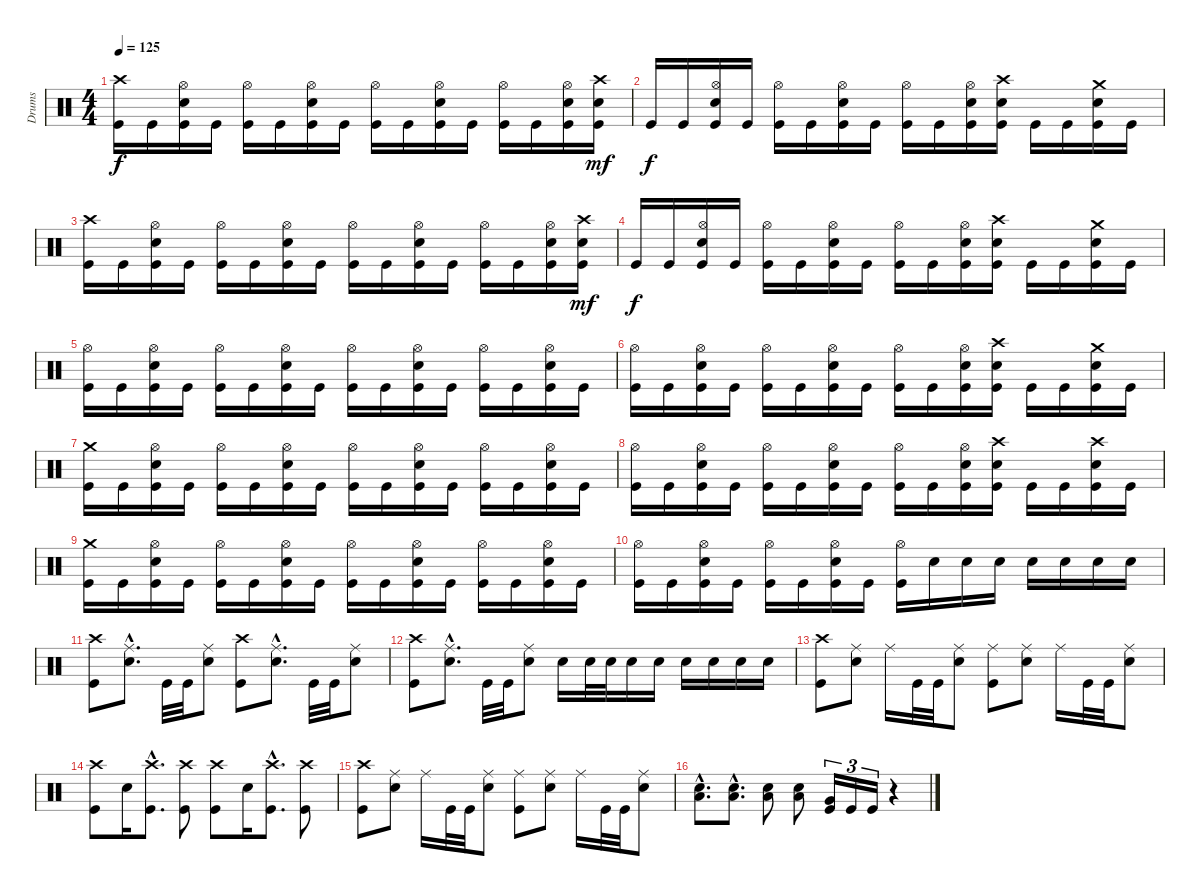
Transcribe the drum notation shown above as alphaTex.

\track ("Drums" "Drums") {instrument percussion}
\staff {score}
\articulation defaults
\ts (4 4)
\tempo 125
\clef neutral
\ks c
("Crash high (hit)" "Kick (hit)").16{dy f} "Kick (hit)".16 ("Hi-Hat (open)" "Snare (hit) 2" "Kick (hit)").16 "Kick (hit)".16 ("Hi-Hat (open)" "Kick (hit)").16 "Kick (hit)".16 ("Hi-Hat (open)" "Snare (hit) 2" "Kick (hit)").16 "Kick (hit)".16 ("Hi-Hat (open)" "Kick (hit)").16 "Kick (hit)".16 ("Hi-Hat (open)" "Snare (hit) 2" "Kick (hit)").16 "Kick (hit)".16 ("Hi-Hat (open)" "Kick (hit)").16 "Kick (hit)".16 ("Hi-Hat (open)" "Snare (hit) 2" "Kick (hit)").16 ("Crash high (hit)" "Snare (hit) 2" "Kick (hit)").16{dy mf} |
"Kick (hit)".16{dy f} "Kick (hit)".16 ("Hi-Hat (open)" "Snare (hit) 2" "Kick (hit)").16 "Kick (hit)".16 ("Hi-Hat (open)" "Kick (hit)").16 "Kick (hit)".16 ("Hi-Hat (open)" "Snare (hit) 2" "Kick (hit)").16 "Kick (hit)".16 ("Hi-Hat (open)" "Kick (hit)").16 "Kick (hit)".16 ("Hi-Hat (open)" "Snare (hit) 2" "Kick (hit)").16 ("Crash high (hit)" "Snare (hit) 2" "Kick (hit)").16 "Kick (hit)".16 "Kick (hit)".16 ("Crash medium (hit)" "Snare (hit) 2" "Kick (hit)").16 "Kick (hit)".16 |
("Crash high (hit)" "Kick (hit)").16 "Kick (hit)".16 ("Hi-Hat (open)" "Snare (hit) 2" "Kick (hit)").16 "Kick (hit)".16 ("Hi-Hat (open)" "Kick (hit)").16 "Kick (hit)".16 ("Hi-Hat (open)" "Snare (hit) 2" "Kick (hit)").16 "Kick (hit)".16 ("Hi-Hat (open)" "Kick (hit)").16 "Kick (hit)".16 ("Hi-Hat (open)" "Snare (hit) 2" "Kick (hit)").16 "Kick (hit)".16 ("Hi-Hat (open)" "Kick (hit)").16 "Kick (hit)".16 ("Hi-Hat (open)" "Snare (hit) 2" "Kick (hit)").16 ("Crash high (hit)" "Snare (hit) 2" "Kick (hit)").16{dy mf} |
"Kick (hit)".16{dy f} "Kick (hit)".16 ("Hi-Hat (open)" "Snare (hit) 2" "Kick (hit)").16 "Kick (hit)".16 ("Hi-Hat (open)" "Kick (hit)").16 "Kick (hit)".16 ("Hi-Hat (open)" "Snare (hit) 2" "Kick (hit)").16 "Kick (hit)".16 ("Hi-Hat (open)" "Kick (hit)").16 "Kick (hit)".16 ("Hi-Hat (open)" "Snare (hit) 2" "Kick (hit)").16 ("Crash high (hit)" "Snare (hit) 2" "Kick (hit)").16 "Kick (hit)".16 "Kick (hit)".16 ("Crash medium (hit)" "Snare (hit) 2" "Kick (hit)").16 "Kick (hit)".16 |
("Hi-Hat (open)" "Kick (hit)").16 "Kick (hit)".16 ("Hi-Hat (open)" "Snare (hit) 2" "Kick (hit)").16 "Kick (hit)".16 ("Hi-Hat (open)" "Kick (hit)").16 "Kick (hit)".16 ("Hi-Hat (open)" "Snare (hit) 2" "Kick (hit)").16 "Kick (hit)".16 ("Hi-Hat (open)" "Kick (hit)").16 "Kick (hit)".16 ("Hi-Hat (open)" "Snare (hit) 2" "Kick (hit)").16 "Kick (hit)".16 ("Hi-Hat (open)" "Kick (hit)").16 "Kick (hit)".16 ("Hi-Hat (open)" "Snare (hit) 2" "Kick (hit)").16 "Kick (hit)".16 |
("Hi-Hat (open)" "Kick (hit)").16 "Kick (hit)".16 ("Hi-Hat (open)" "Snare (hit) 2" "Kick (hit)").16 "Kick (hit)".16 ("Hi-Hat (open)" "Kick (hit)").16 "Kick (hit)".16 ("Hi-Hat (open)" "Snare (hit) 2" "Kick (hit)").16 "Kick (hit)".16 ("Hi-Hat (open)" "Kick (hit)").16 "Kick (hit)".16 ("Hi-Hat (open)" "Snare (hit) 2" "Kick (hit)").16 ("Crash high (hit)" "Snare (hit) 2" "Kick (hit)").16 "Kick (hit)".16 "Kick (hit)".16 ("Crash medium (hit)" "Snare (hit) 2" "Kick (hit)").16 "Kick (hit)".16 |
("Crash medium (hit)" "Kick (hit)").16 "Kick (hit)".16 ("Hi-Hat (open)" "Snare (hit) 2" "Kick (hit)").16 "Kick (hit)".16 ("Hi-Hat (open)" "Kick (hit)").16 "Kick (hit)".16 ("Hi-Hat (open)" "Snare (hit) 2" "Kick (hit)").16 "Kick (hit)".16 ("Hi-Hat (open)" "Kick (hit)").16 "Kick (hit)".16 ("Hi-Hat (open)" "Snare (hit) 2" "Kick (hit)").16 "Kick (hit)".16 ("Hi-Hat (open)" "Kick (hit)").16 "Kick (hit)".16 ("Hi-Hat (open)" "Snare (hit) 2" "Kick (hit)").16 "Kick (hit)".16 |
("Hi-Hat (open)" "Kick (hit)").16 "Kick (hit)".16 ("Hi-Hat (open)" "Snare (hit) 2" "Kick (hit)").16 "Kick (hit)".16 ("Hi-Hat (open)" "Kick (hit)").16 "Kick (hit)".16 ("Hi-Hat (open)" "Snare (hit) 2" "Kick (hit)").16 "Kick (hit)".16 ("Hi-Hat (open)" "Kick (hit)").16 "Kick (hit)".16 ("Hi-Hat (open)" "Snare (hit) 2" "Kick (hit)").16 ("Crash high (hit)" "Snare (hit) 2" "Kick (hit)").16 "Kick (hit)".16 "Kick (hit)".16 ("Crash high (hit)" "Snare (hit) 2" "Kick (hit)").16 "Kick (hit)".16 |
("Crash medium (hit)" "Kick (hit)").16 "Kick (hit)".16 ("Hi-Hat (open)" "Snare (hit) 2" "Kick (hit)").16 "Kick (hit)".16 ("Hi-Hat (open)" "Kick (hit)").16 "Kick (hit)".16 ("Hi-Hat (open)" "Snare (hit) 2" "Kick (hit)").16 "Kick (hit)".16 ("Hi-Hat (open)" "Kick (hit)").16 "Kick (hit)".16 ("Hi-Hat (open)" "Snare (hit) 2" "Kick (hit)").16 "Kick (hit)".16 ("Hi-Hat (open)" "Kick (hit)").16 "Kick (hit)".16 ("Hi-Hat (open)" "Snare (hit) 2" "Kick (hit)").16 "Kick (hit)".16 |
("Hi-Hat (open)" "Kick (hit)").16 "Kick (hit)".16 ("Hi-Hat (open)" "Snare (hit) 2" "Kick (hit)").16 "Kick (hit)".16 ("Hi-Hat (open)" "Kick (hit)").16 "Kick (hit)".16 ("Hi-Hat (open)" "Snare (hit) 2" "Kick (hit)").16 "Kick (hit)".16 ("Hi-Hat (open)" "Kick (hit)").16 "Snare (hit) 2".16 "Snare (hit) 2".16 "Snare (hit) 2".16 "Snare (hit) 2".16 "Snare (hit) 2".16 "Snare (hit) 2".16 "Snare (hit) 2".16 |
("Crash high (hit)" "Kick (hit)").8 ("Ride (middle)"{hac} "Snare (hit) 2"{hac}).8{d} "Kick (hit)".32 "Kick (hit)".32 ("Ride (middle)" "Snare (hit) 2").8 ("Crash high (hit)" "Kick (hit)").8 ("Ride (middle)"{hac} "Snare (hit) 2"{hac}).8{d} "Kick (hit)".32 "Kick (hit)".32 ("Ride (middle)" "Snare (hit) 2").8 |
("Crash high (hit)" "Kick (hit)").8 ("Ride (middle)"{hac} "Snare (hit) 2"{hac}).8{d} "Kick (hit)".32 "Kick (hit)".32 ("Ride (middle)" "Snare (hit) 2").8 "Snare (hit) 2".16 "Snare (hit) 2".32 "Snare (hit) 2".32 "Snare (hit) 2".16 "Snare (hit) 2".16 "Snare (hit) 2".16 "Snare (hit) 2".16 "Snare (hit) 2".16 "Snare (hit) 2".16 |
("Crash high (hit)" "Kick (hit)").8 ("Ride (middle)" "Snare (hit) 2").8 "Ride (middle)".16 "Kick (hit)".32 "Kick (hit)".32 ("Ride (middle)" "Snare (hit) 2").8 ("Ride (middle)" "Kick (hit)").8 ("Ride (middle)" "Snare (hit) 2").8 "Ride (middle)".16 "Kick (hit)".32 "Kick (hit)".32 ("Ride (middle)" "Snare (hit) 2").8 |
("Crash high (hit)" "Kick (hit)").8 "Snare (hit) 2".16 ("Crash high (hit)"{hac} "Kick (hit)"{hac}).8{d} ("Crash high (hit)" "Kick (hit)").8 ("Crash high (hit)" "Kick (hit)").8 "Snare (hit) 2".16 ("Crash high (hit)"{hac} "Kick (hit)"{hac}).8{d} ("Crash high (hit)" "Kick (hit)").8 |
("Crash high (hit)" "Kick (hit)").8 ("Ride (middle)" "Snare (hit) 2").8 "Ride (middle)".16 "Kick (hit)".32 "Kick (hit)".32 ("Ride (middle)" "Snare (hit) 2").8 ("Ride (middle)" "Kick (hit)").8 ("Ride (middle)" "Snare (hit) 2").8 "Ride (middle)".16 "Kick (hit)".32 "Kick (hit)".32 ("Ride (middle)" "Snare (hit) 2").8 |
("Snare (hit) 2"{hac} "Low Tom (hit)"{hac}).8{d} ("Snare (hit) 2"{hac} "Low Tom (hit)"{hac}).8{d} ("Snare (hit) 2" "Low Tom (hit)").8 ("Snare (hit) 2" "Low Tom (hit)").8 ("Kick (hit)" "Very Low Tom (hit)").16{tu (3 2)} "Kick (hit)".16{tu (3 2)} "Kick (hit)".16{tu (3 2)} r.4
